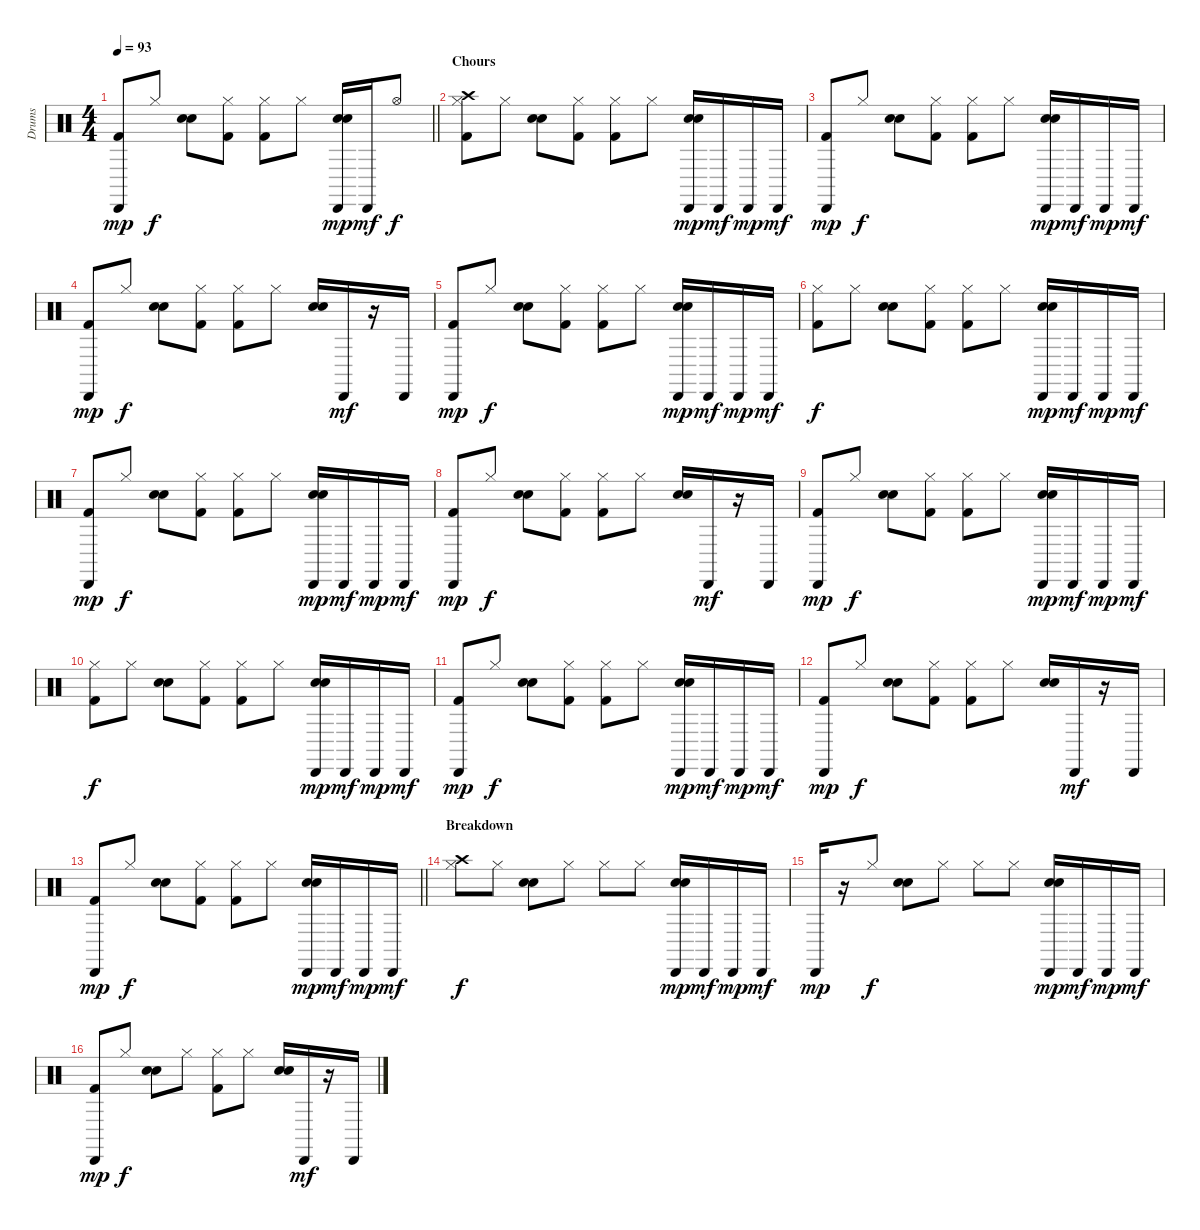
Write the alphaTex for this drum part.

\track ("Drums" "Drums") {instrument percussion}
\staff {score}
\articulation defaults
\ts (4 4)
\tempo 93
\clef neutral
\barLineRight lightlight
\ks c
("Cabasa (hit)" "Kick (hit) 2").8{dy mp} "Hi-Hat (closed)".8{dy f} ("Hand Clap (hit)" "Snare (hit) 2").8 ("Hi-Hat (closed)" "Kick (hit) 2").8 ("Kick (hit) 2" "Hi-Hat (closed)").8 "Hi-Hat (closed)".8 ("Cabasa (hit)" "Hand Clap (hit)" "Snare (hit) 2").16{dy mp} "Cabasa (hit)".16{dy mf} "Hi-Hat (open)".8{dy f} |
\section ("" "Chours")
("Crash high (hit)" "Kick (hit) 2" "Hi-Hat (closed)").8 "Hi-Hat (closed)".8 ("Snare (hit) 2" "Hand Clap (hit)").8 ("Kick (hit) 2" "Hi-Hat (closed)").8 ("Hi-Hat (closed)" "Kick (hit) 2").8 "Hi-Hat (closed)".8 ("Hand Clap (hit)" "Snare (hit) 2" "Cabasa (hit)").16{dy mp} "Cabasa (hit)".16{dy mf} "Cabasa (hit)".16{dy mp} "Cabasa (hit)".16{dy mf} |
("Cabasa (hit)" "Kick (hit) 2").8{dy mp} "Hi-Hat (closed)".8{dy f} ("Hand Clap (hit)" "Snare (hit) 2").8 ("Kick (hit) 2" "Hi-Hat (closed)").8 ("Kick (hit) 2" "Hi-Hat (closed)").8 "Hi-Hat (closed)".8 ("Cabasa (hit)" "Snare (hit) 2" "Hand Clap (hit)").16{dy mp} "Cabasa (hit)".16{dy mf} "Cabasa (hit)".16{dy mp} "Cabasa (hit)".16{dy mf} |
("Cabasa (hit)" "Kick (hit) 2").8{dy mp} "Hi-Hat (closed)".8{dy f} ("Hand Clap (hit)" "Snare (hit) 2").8 ("Hi-Hat (closed)" "Kick (hit) 2").8 ("Kick (hit) 2" "Hi-Hat (closed)").8 "Hi-Hat (closed)".8 ("Snare (hit) 2" "Hand Clap (hit)").16 "Cabasa (hit)".16{dy mf} r.16 "Cabasa (hit)".16 |
("Kick (hit) 2" "Cabasa (hit)").8{dy mp} "Hi-Hat (closed)".8{dy f} ("Snare (hit) 2" "Hand Clap (hit)").8 ("Hi-Hat (closed)" "Kick (hit) 2").8 ("Hi-Hat (closed)" "Kick (hit) 2").8 "Hi-Hat (closed)".8 ("Cabasa (hit)" "Snare (hit) 2" "Hand Clap (hit)").16{dy mp} "Cabasa (hit)".16{dy mf} "Cabasa (hit)".16{dy mp} "Cabasa (hit)".16{dy mf} |
("Kick (hit) 2" "Hi-Hat (closed)").8{dy f} "Hi-Hat (closed)".8 ("Snare (hit) 2" "Hand Clap (hit)").8 ("Kick (hit) 2" "Hi-Hat (closed)").8 ("Kick (hit) 2" "Hi-Hat (closed)").8 "Hi-Hat (closed)".8 ("Cabasa (hit)" "Hand Clap (hit)" "Snare (hit) 2").16{dy mp} "Cabasa (hit)".16{dy mf} "Cabasa (hit)".16{dy mp} "Cabasa (hit)".16{dy mf} |
("Cabasa (hit)" "Kick (hit) 2").8{dy mp} "Hi-Hat (closed)".8{dy f} ("Hand Clap (hit)" "Snare (hit) 2").8 ("Kick (hit) 2" "Hi-Hat (closed)").8 ("Kick (hit) 2" "Hi-Hat (closed)").8 "Hi-Hat (closed)".8 ("Hand Clap (hit)" "Cabasa (hit)" "Snare (hit) 2").16{dy mp} "Cabasa (hit)".16{dy mf} "Cabasa (hit)".16{dy mp} "Cabasa (hit)".16{dy mf} |
("Cabasa (hit)" "Kick (hit) 2").8{dy mp} "Hi-Hat (closed)".8{dy f} ("Snare (hit) 2" "Hand Clap (hit)").8 ("Kick (hit) 2" "Hi-Hat (closed)").8 ("Kick (hit) 2" "Hi-Hat (closed)").8 "Hi-Hat (closed)".8 ("Snare (hit) 2" "Hand Clap (hit)").16 "Cabasa (hit)".16{dy mf} r.16 "Cabasa (hit)".16 |
("Kick (hit) 2" "Cabasa (hit)").8{dy mp} "Hi-Hat (closed)".8{dy f} ("Hand Clap (hit)" "Snare (hit) 2").8 ("Kick (hit) 2" "Hi-Hat (closed)").8 ("Kick (hit) 2" "Hi-Hat (closed)").8 "Hi-Hat (closed)".8 ("Hand Clap (hit)" "Cabasa (hit)" "Snare (hit) 2").16{dy mp} "Cabasa (hit)".16{dy mf} "Cabasa (hit)".16{dy mp} "Cabasa (hit)".16{dy mf} |
("Hi-Hat (closed)" "Kick (hit) 2").8{dy f} "Hi-Hat (closed)".8 ("Snare (hit) 2" "Hand Clap (hit)").8 ("Hi-Hat (closed)" "Kick (hit) 2").8 ("Kick (hit) 2" "Hi-Hat (closed)").8 "Hi-Hat (closed)".8 ("Snare (hit) 2" "Hand Clap (hit)" "Cabasa (hit)").16{dy mp} "Cabasa (hit)".16{dy mf} "Cabasa (hit)".16{dy mp} "Cabasa (hit)".16{dy mf} |
("Kick (hit) 2" "Cabasa (hit)").8{dy mp} "Hi-Hat (closed)".8{dy f} ("Hand Clap (hit)" "Snare (hit) 2").8 ("Kick (hit) 2" "Hi-Hat (closed)").8 ("Hi-Hat (closed)" "Kick (hit) 2").8 "Hi-Hat (closed)".8 ("Snare (hit) 2" "Hand Clap (hit)" "Cabasa (hit)").16{dy mp} "Cabasa (hit)".16{dy mf} "Cabasa (hit)".16{dy mp} "Cabasa (hit)".16{dy mf} |
("Cabasa (hit)" "Kick (hit) 2").8{dy mp} "Hi-Hat (closed)".8{dy f} ("Snare (hit) 2" "Hand Clap (hit)").8 ("Kick (hit) 2" "Hi-Hat (closed)").8 ("Hi-Hat (closed)" "Kick (hit) 2").8 "Hi-Hat (closed)".8 ("Hand Clap (hit)" "Snare (hit) 2").16 "Cabasa (hit)".16{dy mf} r.16 "Cabasa (hit)".16 |
\barLineRight lightlight
("Cabasa (hit)" "Kick (hit) 2").8{dy mp} "Hi-Hat (closed)".8{dy f} ("Snare (hit) 2" "Hand Clap (hit)").8 ("Kick (hit) 2" "Hi-Hat (closed)").8 ("Kick (hit) 2" "Hi-Hat (closed)").8 "Hi-Hat (closed)".8 ("Cabasa (hit)" "Snare (hit) 2" "Hand Clap (hit)").16{dy mp} "Cabasa (hit)".16{dy mf} "Cabasa (hit)".16{dy mp} "Cabasa (hit)".16{dy mf} |
\section ("" "Breakdown")
("Hi-Hat (closed)" "Crash high (hit)").8{dy f} "Hi-Hat (closed)".8 ("Snare (hit) 2" "Hand Clap (hit)").8 "Hi-Hat (closed)".8 "Hi-Hat (closed)".8 "Hi-Hat (closed)".8 ("Hand Clap (hit)" "Snare (hit) 2" "Cabasa (hit)").16{dy mp} "Cabasa (hit)".16{dy mf} "Cabasa (hit)".16{dy mp} "Cabasa (hit)".16{dy mf} |
"Cabasa (hit)".16{dy mp} r.16 "Hi-Hat (closed)".8{dy f} ("Hand Clap (hit)" "Snare (hit) 2").8 "Hi-Hat (closed)".8 "Hi-Hat (closed)".8 "Hi-Hat (closed)".8 ("Cabasa (hit)" "Hand Clap (hit)" "Snare (hit) 2").16{dy mp} "Cabasa (hit)".16{dy mf} "Cabasa (hit)".16{dy mp} "Cabasa (hit)".16{dy mf} |
("Kick (hit) 2" "Cabasa (hit)").8{dy mp} "Hi-Hat (closed)".8{dy f} ("Snare (hit) 2" "Hand Clap (hit)").8 "Hi-Hat (closed)".8 ("Kick (hit) 2" "Hi-Hat (closed)").8 "Hi-Hat (closed)".8 ("Hand Clap (hit)" "Snare (hit) 2").16 "Cabasa (hit)".16{dy mf} r.16 "Cabasa (hit)".16
